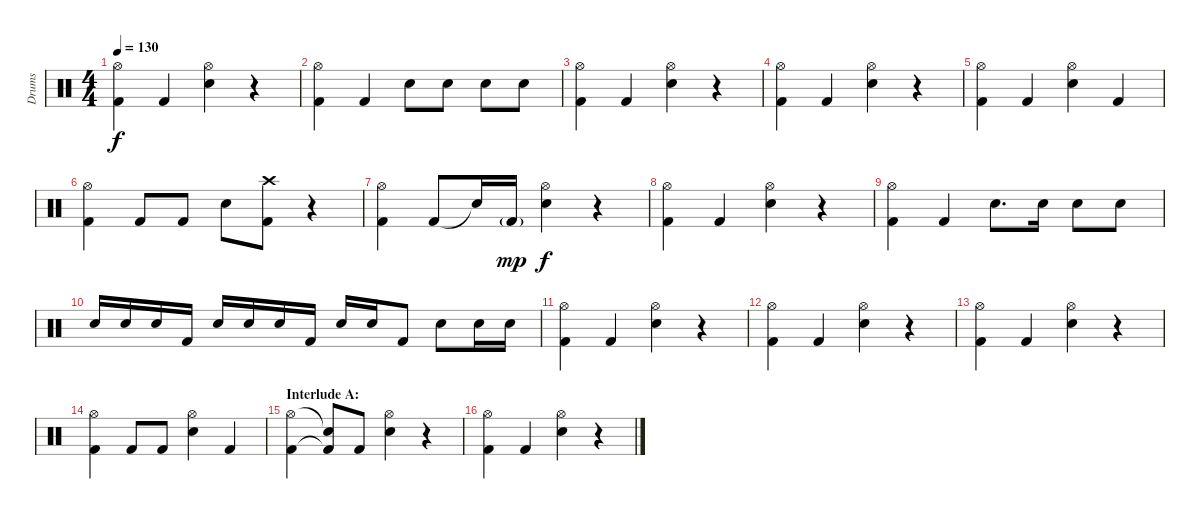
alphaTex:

\track ("Drums" "Drums") {instrument percussion}
\staff {score}
\articulation defaults
\ts (4 4)
\tempo 130
\clef neutral
\ks c
("Hi-Hat (open)" "Kick (hit) 2").4{dy f} "Kick (hit) 2".4 ("Hi-Hat (open)" "Electric Snare (hit)").4 r.4 |
("Hi-Hat (open)" "Kick (hit) 2").4 "Kick (hit) 2".4 "Electric Snare (hit)".8 "Electric Snare (hit)".8 "Electric Snare (hit)".8 "Electric Snare (hit)".8 |
("Hi-Hat (open)" "Kick (hit) 2").4 "Kick (hit) 2".4 ("Hi-Hat (open)" "Electric Snare (hit)").4 r.4 |
("Hi-Hat (open)" "Kick (hit) 2").4 "Kick (hit) 2".4 ("Hi-Hat (open)" "Electric Snare (hit)").4 r.4 |
("Hi-Hat (open)" "Kick (hit) 2").4 "Kick (hit) 2".4 ("Hi-Hat (open)" "Electric Snare (hit)").4 "Kick (hit) 2".4 |
("Hi-Hat (open)" "Kick (hit) 2").4 "Kick (hit) 2".8 "Kick (hit) 2".8 "Electric Snare (hit)".8 ("Crash high (hit)" "Kick (hit) 2").8 r.4 |
("Hi-Hat (open)" "Kick (hit) 2").4 "Kick (hit) 2".8 "Snare (hit)"{t}.16 "Kick (hit) 2"{g}.16{dy mp} ("Hi-Hat (open)" "Electric Snare (hit)").4{dy f} r.4 |
("Hi-Hat (open)" "Kick (hit) 2").4 "Kick (hit) 2".4 ("Hi-Hat (open)" "Electric Snare (hit)").4 r.4 |
("Hi-Hat (open)" "Kick (hit) 2").4 "Kick (hit) 2".4 "Electric Snare (hit)".8{d} "Electric Snare (hit)".16 "Electric Snare (hit)".8 "Electric Snare (hit)".8 |
"Electric Snare (hit)".16 "Electric Snare (hit)".16 "Electric Snare (hit)".16 "Kick (hit) 2".16 "Electric Snare (hit)".16 "Electric Snare (hit)".16 "Electric Snare (hit)".16 "Kick (hit) 2".16 "Electric Snare (hit)".16 "Electric Snare (hit)".16 "Kick (hit) 2".8 "Electric Snare (hit)".8 "Electric Snare (hit)".16 "Electric Snare (hit)".16 |
("Hi-Hat (open)" "Kick (hit) 2").4 "Kick (hit) 2".4 ("Hi-Hat (open)" "Electric Snare (hit)").4 r.4 |
("Hi-Hat (open)" "Kick (hit) 2").4 "Kick (hit) 2".4 ("Hi-Hat (open)" "Electric Snare (hit)").4 r.4 |
("Hi-Hat (open)" "Kick (hit) 2").4 "Kick (hit) 2".4 ("Hi-Hat (open)" "Electric Snare (hit)").4 r.4 |
("Hi-Hat (open)" "Kick (hit) 2").4 "Kick (hit) 2".8 "Kick (hit) 2".8 ("Hi-Hat (open)" "Electric Snare (hit)").4 "Kick (hit) 2".4 |
\section ("" "Interlude A:")
("Hi-Hat (open)" "Kick (hit) 2").4 ("Snare (hit)"{t} "Kick (hit) 2"{t}).8 "Kick (hit) 2".8 ("Hi-Hat (open)" "Electric Snare (hit)").4 r.4 |
("Hi-Hat (open)" "Kick (hit) 2").4 "Kick (hit) 2".4 ("Hi-Hat (open)" "Electric Snare (hit)").4 r.4
